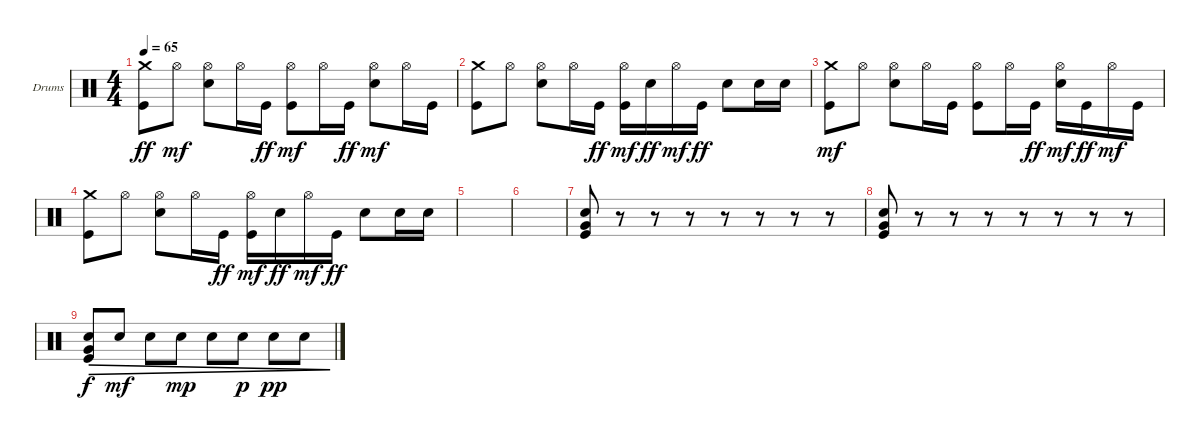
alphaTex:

\defaultSystemsLayout 4
\bracketExtendMode groupsimilarinstruments
\firstSystemTrackNameOrientation horizontal
\otherSystemsTrackNameOrientation horizontal
\track ("Drumkit" "Drums") {instrument percussion}
\staff {score}
\articulation defaults
\ts (4 4)
\tempo 65
\clef neutral
\ks c
("Kick (hit)" "Crash medium (hit)").8{dy ff} "Hi-Hat (open)".8{dy mf} ("Hi-Hat (open)" "Snare (hit) 2").8 "Hi-Hat (open)".16 "Kick (hit)".16{dy ff} ("Hi-Hat (open)" "Kick (hit)").8{dy mf} "Hi-Hat (open)".16 "Kick (hit)".16{dy ff} ("Snare (hit) 2" "Hi-Hat (open)").8{dy mf} "Hi-Hat (open)".16 "Kick (hit)".16 |
("Kick (hit)" "Crash medium (hit)").8 "Hi-Hat (open)".8 ("Hi-Hat (open)" "Snare (hit) 2").8 "Hi-Hat (open)".16 "Kick (hit)".16{dy ff} ("Hi-Hat (open)" "Kick (hit)").16{dy mf} "Snare (hit) 2".16{dy ff} "Hi-Hat (open)".16{dy mf} "Kick (hit)".16{dy ff} "Snare (hit) 2".8 "Snare (hit) 2".16 "Snare (hit) 2".16 |
("Kick (hit)" "Crash medium (hit)").8{dy mf} "Hi-Hat (open)".8 ("Hi-Hat (open)" "Snare (hit) 2").8 "Hi-Hat (open)".16 "Kick (hit)".16 ("Hi-Hat (open)" "Kick (hit)").8 "Hi-Hat (open)".16 "Kick (hit)".16{dy ff} ("Hi-Hat (open)" "Snare (hit) 2").16{dy mf} "Kick (hit)".16{dy ff} "Hi-Hat (open)".16{dy mf} "Kick (hit)".16 |
("Kick (hit)" "Crash medium (hit)").8 "Hi-Hat (open)".8 ("Hi-Hat (open)" "Snare (hit) 2").8 "Hi-Hat (open)".16 "Kick (hit)".16{dy ff} ("Hi-Hat (open)" "Kick (hit)").16{dy mf} "Snare (hit) 2".16{dy ff} "Hi-Hat (open)".16{dy mf} "Kick (hit)".16{dy ff} "Snare (hit) 2".8 "Snare (hit) 2".16 "Snare (hit) 2".16 |
|
|
("Kick (hit)" "Snare (hit) 2" "Very Low Tom (hit)").8 r.8 r.8 r.8 r.8 r.8 r.8 r.8 |
("Kick (hit)" "Snare (hit) 2" "Very Low Tom (hit)").8 r.8 r.8 r.8 r.8 r.8 r.8 r.8 |
("Kick (hit)" "Snare (hit) 2" "Very Low Tom (hit)").8{dec dy f} "Snare (hit) 2".8{dec dy mf} "Snare (hit) 2".8{dec} "Snare (hit) 2".8{dec dy mp} "Snare (hit) 2".8{dec} "Snare (hit) 2".8{dec dy p} "Snare (hit) 2".8{dec dy pp} "Snare (hit) 2".8{dec}
